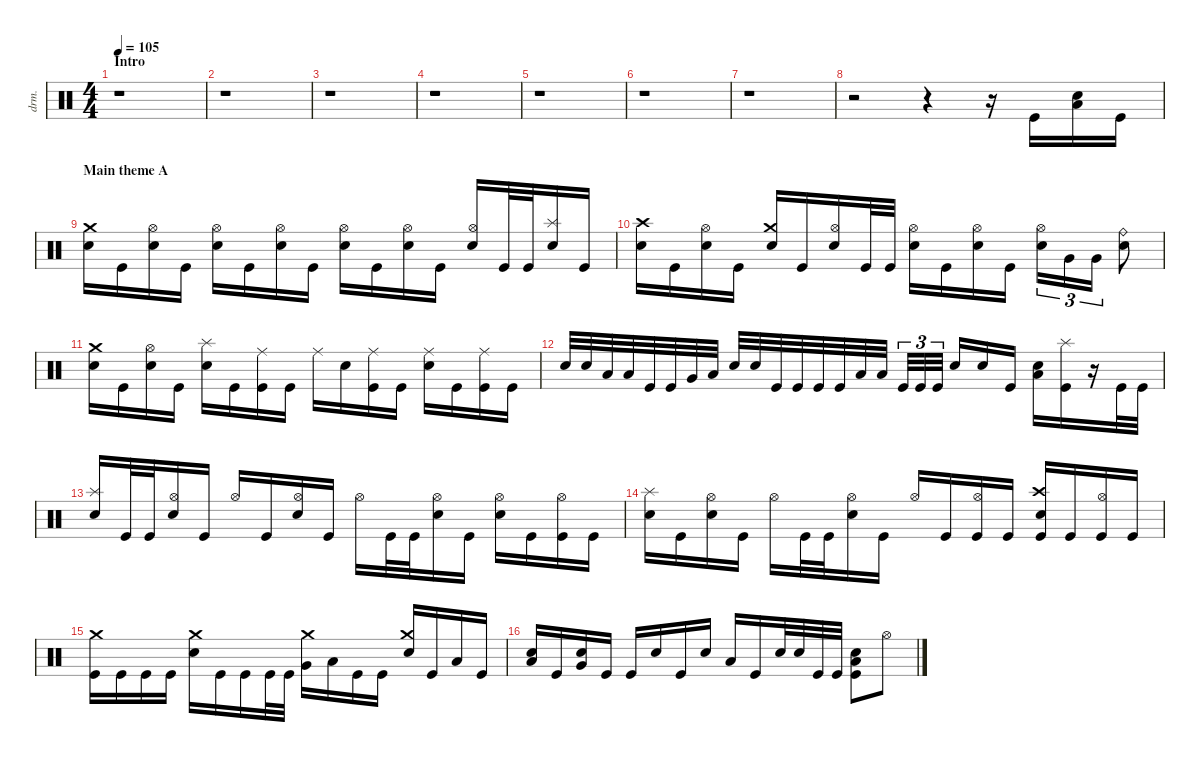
\defaultSystemsLayout 4
\hideDynamics
\bracketExtendMode nobrackets
\otherSystemsTrackNameOrientation horizontal
\track ("Drumkit" "drm.") {mute instrument percussion}
\staff {score}
\articulation defaults
\ts (4 4)
\section ("" "Intro")
\tempo 105
\clef neutral
\ks c
r.1{dy mf beam Down} |
r.1{beam Down} |
r.1{beam Down} |
r.1{beam Down} |
r.1{beam Down} |
r.1{beam Down} |
r.1{beam Down} |
r.2{beam Down} r.4{beam Down} r.16{beam Down} "Kick (hit)".16{beam Up} ("Electric Snare (hit)" "Low Floor Tom (hit)").16{beam Up} "Kick (hit)".16{beam Up} |
\section ("" "Main theme A")
("Crash medium (hit)" "Electric Snare (hit)").16{beam Down} "Kick (hit)".16{beam Down} ("Hi-Hat (open)" "Electric Snare (hit)").16{beam Down} "Kick (hit)".16{beam Down} ("Hi-Hat (open)" "Electric Snare (hit)").16{beam Down} "Kick (hit)".16{beam Down} ("Hi-Hat (open)" "Electric Snare (hit)").16{beam Down} "Kick (hit)".16{beam Down} ("Hi-Hat (open)" "Electric Snare (hit)").16{beam Down} "Kick (hit)".16{beam Down} ("Hi-Hat (open)" "Electric Snare (hit)").16{beam Down} "Kick (hit)".16{beam Down} ("Electric Snare (hit)" "Hi-Hat (open)").16{beam Up} "Kick (hit)".32{beam Up} "Kick (hit)".32{beam Up} ("Splash (hit)" "Electric Snare (hit)").16{beam Up} "Kick (hit)".16{beam Up} |
("Crash high (hit)" "Electric Snare (hit)").16{beam Down} "Kick (hit)".16{beam Down} ("Hi-Hat (open)" "Electric Snare (hit)").16{beam Down} "Kick (hit)".16{beam Down} ("Crash medium (hit)" "Electric Snare (hit)").16{beam Up} "Kick (hit)".16{beam Up} ("Hi-Hat (open)" "Electric Snare (hit)").16{beam Up} "Kick (hit)".32{beam Up} "Kick (hit)".32{beam Up} ("Hi-Hat (open)" "Electric Snare (hit)").16{beam Down} "Kick (hit)".16{beam Down} ("Hi-Hat (open)" "Electric Snare (hit)").16{beam Down} "Kick (hit)".16{beam Down} ("Hi-Hat (open)" "Electric Snare (hit)").16{tu (3 2) beam Down} "Very Low Tom (hit)".16{tu (3 2) beam Down} "Very Low Tom (hit)".16{tu (3 2) beam Down} ("Ride (bell)" "Electric Snare (hit)").8{beam Down} |
("Crash medium (hit)" "Electric Snare (hit)").16{beam Down} "Kick (hit)".16{beam Down} ("Hi-Hat (open)" "Electric Snare (hit)").16{beam Down} "Kick (hit)".16{beam Down} ("Splash (hit)" "Electric Snare (hit)").16{beam Down} "Kick (hit)".16{beam Down} ("Kick (hit)" "Ride (middle)").16{beam Down} "Kick (hit)".16{beam Down} "Ride (middle)".16{beam Down} "Electric Snare (hit)".16{beam Down} ("Kick (hit)" "Ride (middle)").16{beam Down} "Kick (hit)".16{beam Down} ("Electric Snare (hit)" "Ride (middle)").16{beam Down} "Kick (hit)".16{beam Down} ("Kick (hit)" "Ride (middle)").16{beam Down} "Kick (hit)".16{beam Down} |
"Electric Snare (hit)".32{beam Up} "Electric Snare (hit)".32{beam Up} "Low Tom (hit)".32{beam Up} "Low Tom (hit)".32{beam Up} "Kick (hit)".32{beam Up} "Kick (hit)".32{beam Up} "Very Low Tom (hit)".32{beam Up} "Low Floor Tom (hit)".32{beam Up} "Electric Snare (hit)".32{beam Up} "Electric Snare (hit)".32{beam Up} "Kick (hit)".32{beam Up} "Kick (hit)".32{beam Up} "Kick (hit)".32{beam Up} "Kick (hit)".32{beam Up} "Low Tom (hit)".32{beam Up} "Low Tom (hit)".32{beam Up} "Kick (hit)".32{tu (3 2) beam Up} "Kick (hit)".32{tu (3 2) beam Up} "Kick (hit)".32{tu (3 2) beam Up} "Electric Snare (hit)".16{beam Up} "Electric Snare (hit)".16{beam Up} "Kick (hit)".16{beam Up} ("Electric Snare (hit)" "Low Floor Tom (hit)").16{beam Down} ("Kick (hit)" "Splash (hit)").16{beam Down} r.16{beam Down} "Kick (hit)".32{beam Down} "Kick (hit)".32{beam Down} |
("Splash (hit)" "Electric Snare (hit)").16{beam Up} "Kick (hit)".32{beam Up} "Kick (hit)".32{beam Up} ("Hi-Hat (open)" "Electric Snare (hit)").16{beam Up} "Kick (hit)".16{beam Up} "Hi-Hat (open)".16{beam Up} "Kick (hit)".16{beam Up} ("Electric Snare (hit)" "Hi-Hat (open)").16{beam Up} "Kick (hit)".16{beam Up} "Hi-Hat (open)".16{beam Down} "Kick (hit)".32{beam Down} "Kick (hit)".32{beam Down} ("Electric Snare (hit)" "Hi-Hat (open)").16{beam Down} "Kick (hit)".16{beam Down} ("Electric Snare (hit)" "Hi-Hat (open)").16{beam Down} "Kick (hit)".16{beam Down} ("Kick (hit)" "Hi-Hat (open)").16{beam Down} "Kick (hit)".16{beam Down} |
("Electric Snare (hit)" "Splash (hit)").16{beam Down} "Kick (hit)".16{beam Down} ("Electric Snare (hit)" "Hi-Hat (open)").16{beam Down} "Kick (hit)".16{beam Down} "Hi-Hat (open)".16{beam Down} "Kick (hit)".32{beam Down} "Kick (hit)".32{beam Down} ("Electric Snare (hit)" "Hi-Hat (open)").16{beam Down} "Kick (hit)".16{beam Down} "Hi-Hat (open)".16{beam Up} "Kick (hit)".16{beam Up} ("Kick (hit)" "Hi-Hat (open)").16{beam Up} "Kick (hit)".16{beam Up} ("Electric Snare (hit)" "Crash high (hit)" "Kick (hit)").16{beam Up} "Kick (hit)".16{beam Up} ("Hi-Hat (open)" "Kick (hit)").16{beam Up} "Kick (hit)".16{beam Up} |
("Crash medium (hit)" "Kick (hit)").16{beam Down} "Kick (hit)".16{beam Down} "Kick (hit)".16{beam Down} "Kick (hit)".16{beam Down} ("Crash medium (hit)" "Electric Snare (hit)").16{beam Down} "Kick (hit)".16{beam Down} "Kick (hit)".16{beam Down} "Kick (hit)".32{beam Down} "Kick (hit)".32{beam Down} ("Very Low Tom (hit)" "Crash medium (hit)").16{beam Down} "Low Tom (hit)".16{beam Down} "Kick (hit)".16{beam Down} "Kick (hit)".16{beam Down} ("Crash medium (hit)" "Electric Snare (hit)").16{beam Up} "Kick (hit)".16{beam Up} "Low Floor Tom (hit)".16{beam Up} "Kick (hit)".16{beam Up} |
("Electric Snare (hit)" "Low Tom (hit)").16{beam Up} "Kick (hit)".16{beam Up} ("Very Low Tom (hit)" "Electric Snare (hit)").16{beam Up} "Kick (hit)".16{beam Up} "Kick (hit)".16{beam Up} "Electric Snare (hit)".16{beam Up} "Kick (hit)".16{beam Up} "Electric Snare (hit)".16{beam Up} "Low Tom (hit)".16{beam Up} "Kick (hit)".16{beam Up} "Electric Snare (hit)".32{beam Up} "Electric Snare (hit)".32{beam Up} "Kick (hit)".32{beam Up} "Kick (hit)".32{beam Up} ("Electric Snare (hit)" "Low Floor Tom (hit)" "Kick (hit)").8{beam Down} "Hi-Hat (open)".8{beam Down}
